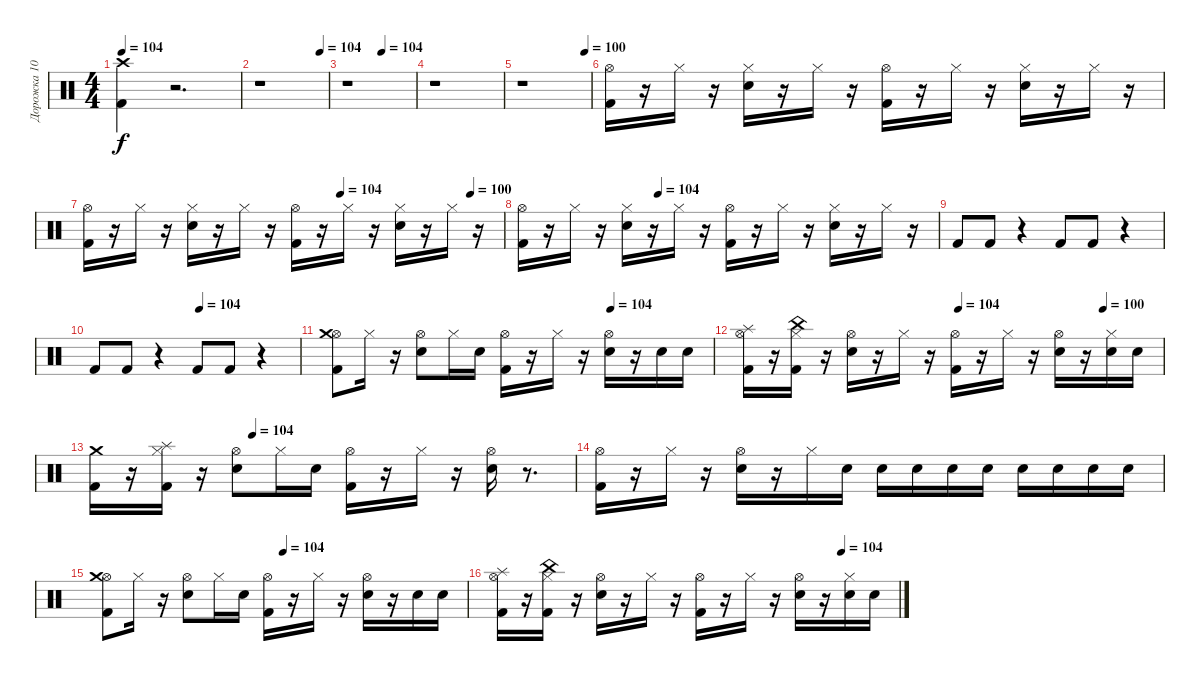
\track ("Дорожка 10" "Дорожка 10") {instrument percussion}
\staff {score}
\articulation defaults
\ts (4 4)
\tempo 104
\clef neutral
\ks c
("Crash high (hit)" "Kick (hit) 2").4{dy f} r.2{d} |
\tempo (104 0.890625)
r.1 |
\tempo (104 0.515625)
r.1 |
r.1 |
\tempo (100 0.921875)
r.1 |
("Hi-Hat (open)" "Kick (hit) 2").16 r.16 "Hi-Hat (closed)".16 r.16 ("Hi-Hat (closed)" "Electric Snare (hit)").16 r.16 "Hi-Hat (closed)".16 r.16 ("Hi-Hat (open)" "Kick (hit) 2").16 r.16 "Hi-Hat (closed)".16 r.16 ("Electric Snare (hit)" "Hi-Hat (closed)").16 r.16 "Hi-Hat (closed)".16 r.16 |
\tempo (104 0.609375)
\tempo (100 0.921875)
("Hi-Hat (open)" "Kick (hit) 2").16 r.16 "Hi-Hat (closed)".16 r.16 ("Hi-Hat (closed)" "Electric Snare (hit)").16 r.16 "Hi-Hat (closed)".16 r.16 ("Hi-Hat (open)" "Kick (hit) 2").16 r.16 "Hi-Hat (closed)".16 r.16 ("Electric Snare (hit)" "Hi-Hat (closed)").16 r.16 "Hi-Hat (closed)".16 r.16 |
\tempo (104 0.328125)
("Hi-Hat (open)" "Kick (hit) 2").16 r.16 "Hi-Hat (closed)".16 r.16 ("Hi-Hat (closed)" "Electric Snare (hit)").16 r.16 "Hi-Hat (closed)".16 r.16 ("Hi-Hat (open)" "Kick (hit) 2").16 r.16 "Hi-Hat (closed)".16 r.16 ("Electric Snare (hit)" "Hi-Hat (closed)").16 r.16 "Hi-Hat (closed)".16 r.16 |
"Kick (hit) 2".8 "Kick (hit) 2".8 r.4 "Kick (hit) 2".8 "Kick (hit) 2".8 r.4 |
\tempo (104 0.515625)
"Kick (hit) 2".8 "Kick (hit) 2".8 r.4 "Kick (hit) 2".8 "Kick (hit) 2".8 r.4 |
\tempo (104 0.734375)
("Hi-Hat (open)" "Crash medium (hit)" "Kick (hit) 2").8 "Hi-Hat (closed)".16 r.16 ("Hi-Hat (open)" "Electric Snare (hit)").8 "Hi-Hat (closed)".16 "Electric Snare (hit)".16 ("Hi-Hat (open)" "Kick (hit) 2").16 r.16 "Hi-Hat (closed)".16 r.16 ("Hi-Hat (open)" "Electric Snare (hit)").16 r.16 "Electric Snare (hit)".16 "Electric Snare (hit)".16 |
\tempo (104 0.515625)
\tempo (100 0.859375)
("Splash (hit)" "Hi-Hat (open)" "Kick (hit) 2").16 r.16 ("Kick (hit) 2" "China (hit)" "Hi-Hat (closed)").16 r.16 ("Electric Snare (hit)" "Hi-Hat (open)").16 r.16 "Hi-Hat (closed)".16 r.16 ("Kick (hit) 2" "Hi-Hat (open)").16 r.16 "Hi-Hat (closed)".16 r.16 ("Electric Snare (hit)" "Hi-Hat (open)").16 r.16 ("Electric Snare (hit)" "Hi-Hat (closed)").16 "Electric Snare (hit)".16 |
\tempo (104 0.328125)
("Kick (hit) 2" "Crash medium (hit)").16 r.16 ("Kick (hit) 2" "Splash (hit)" "Hi-Hat (closed)").16 r.16 ("Hi-Hat (open)" "Electric Snare (hit)").8 "Hi-Hat (closed)".16 "Electric Snare (hit)".16 ("Hi-Hat (open)" "Kick (hit) 2").16 r.16 "Hi-Hat (closed)".16 r.16 ("Hi-Hat (open)" "Electric Snare (hit)").16 r.8{d} |
("Hi-Hat (open)" "Kick (hit) 2").16 r.16 "Hi-Hat (closed)".16 r.16 ("Electric Snare (hit)" "Hi-Hat (open)").16 r.16 "Hi-Hat (closed)".16 "Electric Snare (hit)".16 "Electric Snare (hit)".16 "Electric Snare (hit)".16 "Electric Snare (hit)".16 "Electric Snare (hit)".16 "Electric Snare (hit)".16 "Electric Snare (hit)".16 "Electric Snare (hit)".16 "Electric Snare (hit)".16 |
\tempo (104 0.5)
("Hi-Hat (open)" "Crash medium (hit)" "Kick (hit) 2").8 "Hi-Hat (closed)".16 r.16 ("Hi-Hat (open)" "Electric Snare (hit)").8 "Hi-Hat (closed)".16 "Electric Snare (hit)".16 ("Hi-Hat (open)" "Kick (hit) 2").16 r.16 "Hi-Hat (closed)".16 r.16 ("Hi-Hat (open)" "Electric Snare (hit)").16 r.16 "Electric Snare (hit)".16 "Electric Snare (hit)".16 |
\tempo (104 0.859375)
("Splash (hit)" "Hi-Hat (open)" "Kick (hit) 2").16 r.16 ("Kick (hit) 2" "China (hit)" "Hi-Hat (closed)").16 r.16 ("Electric Snare (hit)" "Hi-Hat (open)").16 r.16 "Hi-Hat (closed)".16 r.16 ("Kick (hit) 2" "Hi-Hat (open)").16 r.16 "Hi-Hat (closed)".16 r.16 ("Electric Snare (hit)" "Hi-Hat (open)").16 r.16 ("Electric Snare (hit)" "Hi-Hat (closed)").16 "Electric Snare (hit)".16
